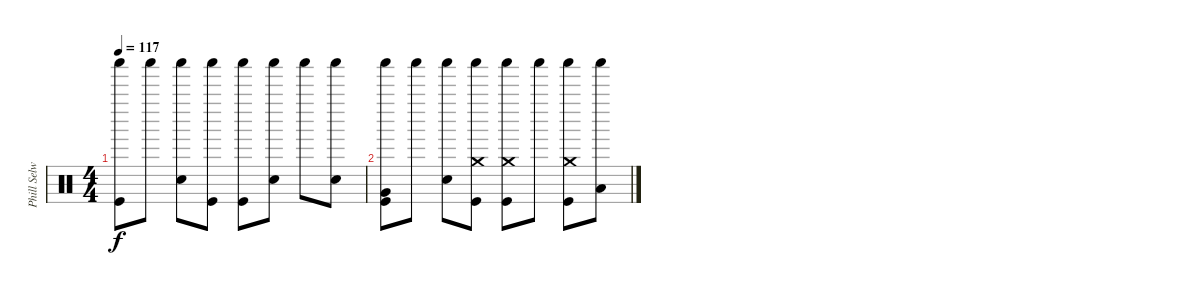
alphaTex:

\track ("Phill Selway" "Phill Selw") {instrument percussion}
\staff {score}
\articulation defaults
\ts (4 4)
\tempo 117
\clef neutral
\ks c
("Shaker (hit)" "Kick (hit)").8{dy f} "Shaker (hit)".8 ("Shaker (hit)" "Snare (hit) 2").8 ("Shaker (hit)" "Kick (hit)").8 ("Shaker (hit)" "Kick (hit)").8 ("Shaker (hit)" "Snare (hit) 2").8 "Shaker (hit)".8 ("Shaker (hit)" "Snare (hit) 2").8 |
("Shaker (hit)" "Kick (hit)" "Very Low Tom (hit)").8 "Shaker (hit)".8 ("Shaker (hit)" "Snare (hit) 2").8 ("Shaker (hit)" "Crash medium (hit)" "Kick (hit)").8 ("Shaker (hit)" "Crash medium (hit)" "Kick (hit)").8 "Shaker (hit)".8 ("Shaker (hit)" "Crash medium (hit)" "Kick (hit)").8 ("Shaker (hit)" "Low Tom (hit)").8
